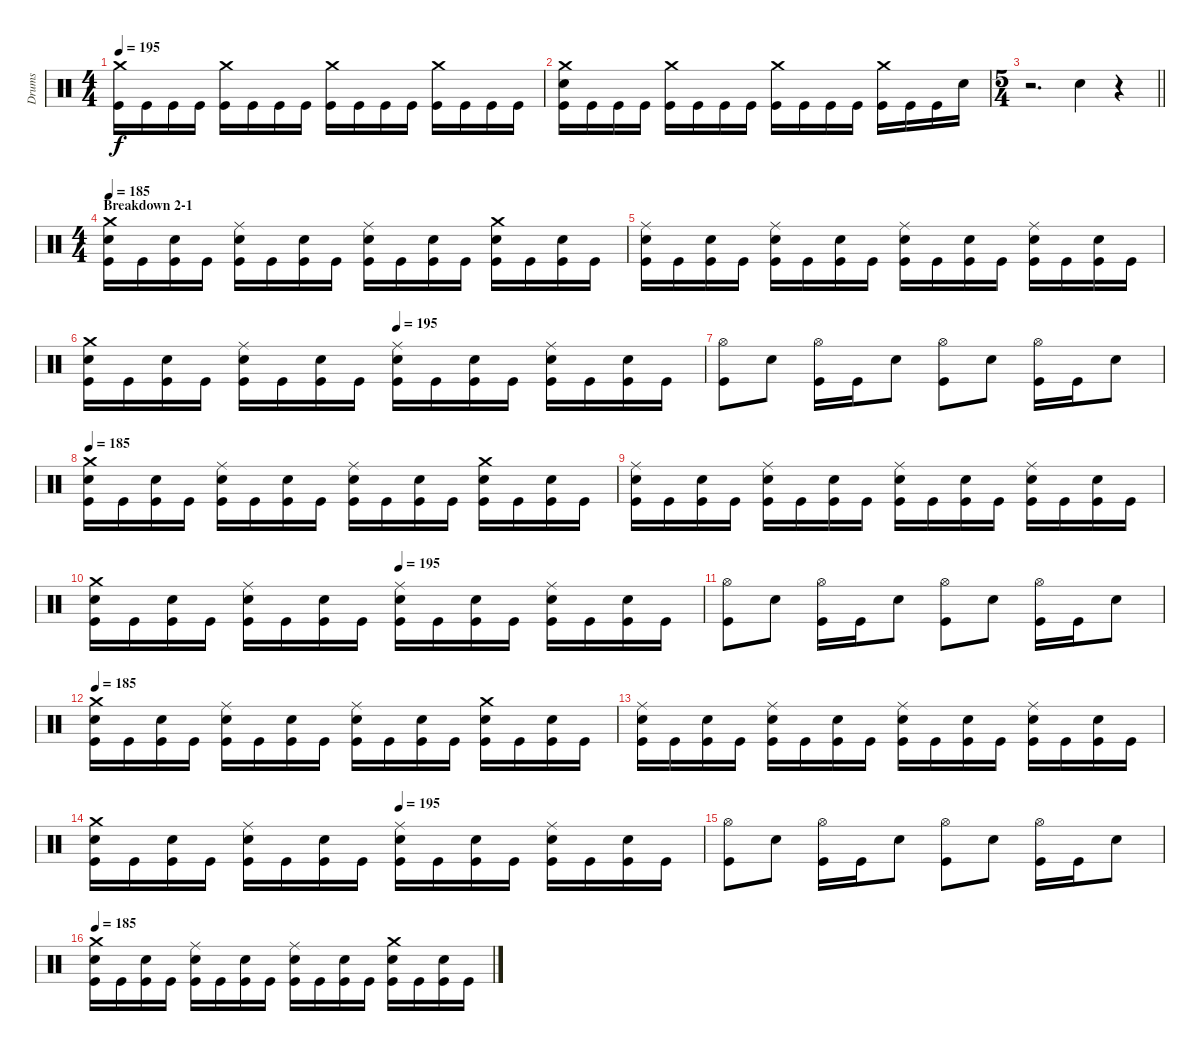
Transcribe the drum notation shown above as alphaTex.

\track ("Drums" "Drums") {instrument percussion}
\staff {score}
\articulation defaults
\ts (4 4)
\tempo 195
\clef neutral
\ks c
("Crash medium (hit)" "Kick (hit)").16{dy f} "Kick (hit)".16 "Kick (hit)".16 "Kick (hit)".16 ("Crash medium (hit)" "Kick (hit)").16 "Kick (hit)".16 "Kick (hit)".16 "Kick (hit)".16 ("Crash medium (hit)" "Kick (hit)").16 "Kick (hit)".16 "Kick (hit)".16 "Kick (hit)".16 ("Crash medium (hit)" "Kick (hit)").16 "Kick (hit)".16 "Kick (hit)".16 "Kick (hit)".16 |
("Crash medium (hit)" "Snare (hit) 2" "Kick (hit)").16 "Kick (hit)".16 "Kick (hit)".16 "Kick (hit)".16 ("Crash medium (hit)" "Kick (hit)").16 "Kick (hit)".16 "Kick (hit)".16 "Kick (hit)".16 ("Crash medium (hit)" "Kick (hit)").16 "Kick (hit)".16 "Kick (hit)".16 "Kick (hit)".16 ("Crash medium (hit)" "Kick (hit)").16 "Kick (hit)".16 "Kick (hit)".16 "Snare (hit) 2".16 |
\ts (5 4)
\barLineRight lightlight
r.2{d} "Snare (hit) 2".4 r.4 |
\ts (4 4)
\section ("" "Breakdown 2-1")
\tempo 185
("Crash medium (hit)" "Snare (hit) 2" "Kick (hit)").16 "Kick (hit)".16 ("Snare (hit) 2" "Kick (hit)").16 "Kick (hit)".16 ("Ride (middle)" "Snare (hit) 2" "Kick (hit)").16 "Kick (hit)".16 ("Snare (hit) 2" "Kick (hit)").16 "Kick (hit)".16 ("Ride (middle)" "Snare (hit) 2" "Kick (hit)").16 "Kick (hit)".16 ("Snare (hit) 2" "Kick (hit)").16 "Kick (hit)".16 ("Crash medium (hit)" "Snare (hit) 2" "Kick (hit)").16 "Kick (hit)".16 ("Snare (hit) 2" "Kick (hit)").16 "Kick (hit)".16 |
("Ride (middle)" "Snare (hit) 2" "Kick (hit)").16 "Kick (hit)".16 ("Snare (hit) 2" "Kick (hit)").16 "Kick (hit)".16 ("Ride (middle)" "Snare (hit) 2" "Kick (hit)").16 "Kick (hit)".16 ("Snare (hit) 2" "Kick (hit)").16 "Kick (hit)".16 ("Ride (middle)" "Snare (hit) 2" "Kick (hit)").16 "Kick (hit)".16 ("Snare (hit) 2" "Kick (hit)").16 "Kick (hit)".16 ("Ride (middle)" "Snare (hit) 2" "Kick (hit)").16 "Kick (hit)".16 ("Snare (hit) 2" "Kick (hit)").16 "Kick (hit)".16 |
\tempo (195 0.5)
("Crash medium (hit)" "Snare (hit) 2" "Kick (hit)").16 "Kick (hit)".16 ("Snare (hit) 2" "Kick (hit)").16 "Kick (hit)".16 ("Ride (middle)" "Snare (hit) 2" "Kick (hit)").16 "Kick (hit)".16 ("Snare (hit) 2" "Kick (hit)").16 "Kick (hit)".16 ("Ride (middle)" "Snare (hit) 2" "Kick (hit)").16 "Kick (hit)".16 ("Snare (hit) 2" "Kick (hit)").16 "Kick (hit)".16 ("Ride (middle)" "Snare (hit) 2" "Kick (hit)").16 "Kick (hit)".16 ("Snare (hit) 2" "Kick (hit)").16 "Kick (hit)".16 |
("Hi-Hat (open)" "Kick (hit)").8 "Snare (hit) 2".8 ("Hi-Hat (open)" "Kick (hit)").16 "Kick (hit)".16 "Snare (hit) 2".8 ("Hi-Hat (open)" "Kick (hit)").8 "Snare (hit) 2".8 ("Hi-Hat (open)" "Kick (hit)").16 "Kick (hit)".16 "Snare (hit) 2".8 |
\tempo 185
("Crash medium (hit)" "Snare (hit) 2" "Kick (hit)").16 "Kick (hit)".16 ("Snare (hit) 2" "Kick (hit)").16 "Kick (hit)".16 ("Ride (middle)" "Snare (hit) 2" "Kick (hit)").16 "Kick (hit)".16 ("Snare (hit) 2" "Kick (hit)").16 "Kick (hit)".16 ("Ride (middle)" "Snare (hit) 2" "Kick (hit)").16 "Kick (hit)".16 ("Snare (hit) 2" "Kick (hit)").16 "Kick (hit)".16 ("Crash medium (hit)" "Snare (hit) 2" "Kick (hit)").16 "Kick (hit)".16 ("Snare (hit) 2" "Kick (hit)").16 "Kick (hit)".16 |
("Ride (middle)" "Snare (hit) 2" "Kick (hit)").16 "Kick (hit)".16 ("Snare (hit) 2" "Kick (hit)").16 "Kick (hit)".16 ("Ride (middle)" "Snare (hit) 2" "Kick (hit)").16 "Kick (hit)".16 ("Snare (hit) 2" "Kick (hit)").16 "Kick (hit)".16 ("Ride (middle)" "Snare (hit) 2" "Kick (hit)").16 "Kick (hit)".16 ("Snare (hit) 2" "Kick (hit)").16 "Kick (hit)".16 ("Ride (middle)" "Snare (hit) 2" "Kick (hit)").16 "Kick (hit)".16 ("Snare (hit) 2" "Kick (hit)").16 "Kick (hit)".16 |
\tempo (195 0.5)
("Crash medium (hit)" "Snare (hit) 2" "Kick (hit)").16 "Kick (hit)".16 ("Snare (hit) 2" "Kick (hit)").16 "Kick (hit)".16 ("Ride (middle)" "Snare (hit) 2" "Kick (hit)").16 "Kick (hit)".16 ("Snare (hit) 2" "Kick (hit)").16 "Kick (hit)".16 ("Ride (middle)" "Snare (hit) 2" "Kick (hit)").16 "Kick (hit)".16 ("Snare (hit) 2" "Kick (hit)").16 "Kick (hit)".16 ("Ride (middle)" "Snare (hit) 2" "Kick (hit)").16 "Kick (hit)".16 ("Snare (hit) 2" "Kick (hit)").16 "Kick (hit)".16 |
("Hi-Hat (open)" "Kick (hit)").8 "Snare (hit) 2".8 ("Hi-Hat (open)" "Kick (hit)").16 "Kick (hit)".16 "Snare (hit) 2".8 ("Hi-Hat (open)" "Kick (hit)").8 "Snare (hit) 2".8 ("Hi-Hat (open)" "Kick (hit)").16 "Kick (hit)".16 "Snare (hit) 2".8 |
\tempo 185
("Crash medium (hit)" "Snare (hit) 2" "Kick (hit)").16 "Kick (hit)".16 ("Snare (hit) 2" "Kick (hit)").16 "Kick (hit)".16 ("Ride (middle)" "Snare (hit) 2" "Kick (hit)").16 "Kick (hit)".16 ("Snare (hit) 2" "Kick (hit)").16 "Kick (hit)".16 ("Ride (middle)" "Snare (hit) 2" "Kick (hit)").16 "Kick (hit)".16 ("Snare (hit) 2" "Kick (hit)").16 "Kick (hit)".16 ("Crash medium (hit)" "Snare (hit) 2" "Kick (hit)").16 "Kick (hit)".16 ("Snare (hit) 2" "Kick (hit)").16 "Kick (hit)".16 |
("Ride (middle)" "Snare (hit) 2" "Kick (hit)").16 "Kick (hit)".16 ("Snare (hit) 2" "Kick (hit)").16 "Kick (hit)".16 ("Ride (middle)" "Snare (hit) 2" "Kick (hit)").16 "Kick (hit)".16 ("Snare (hit) 2" "Kick (hit)").16 "Kick (hit)".16 ("Ride (middle)" "Snare (hit) 2" "Kick (hit)").16 "Kick (hit)".16 ("Snare (hit) 2" "Kick (hit)").16 "Kick (hit)".16 ("Ride (middle)" "Snare (hit) 2" "Kick (hit)").16 "Kick (hit)".16 ("Snare (hit) 2" "Kick (hit)").16 "Kick (hit)".16 |
\tempo (195 0.5)
("Crash medium (hit)" "Snare (hit) 2" "Kick (hit)").16 "Kick (hit)".16 ("Snare (hit) 2" "Kick (hit)").16 "Kick (hit)".16 ("Ride (middle)" "Snare (hit) 2" "Kick (hit)").16 "Kick (hit)".16 ("Snare (hit) 2" "Kick (hit)").16 "Kick (hit)".16 ("Ride (middle)" "Snare (hit) 2" "Kick (hit)").16 "Kick (hit)".16 ("Snare (hit) 2" "Kick (hit)").16 "Kick (hit)".16 ("Ride (middle)" "Snare (hit) 2" "Kick (hit)").16 "Kick (hit)".16 ("Snare (hit) 2" "Kick (hit)").16 "Kick (hit)".16 |
("Hi-Hat (open)" "Kick (hit)").8 "Snare (hit) 2".8 ("Hi-Hat (open)" "Kick (hit)").16 "Kick (hit)".16 "Snare (hit) 2".8 ("Hi-Hat (open)" "Kick (hit)").8 "Snare (hit) 2".8 ("Hi-Hat (open)" "Kick (hit)").16 "Kick (hit)".16 "Snare (hit) 2".8 |
\tempo 185
("Crash medium (hit)" "Snare (hit) 2" "Kick (hit)").16 "Kick (hit)".16 ("Snare (hit) 2" "Kick (hit)").16 "Kick (hit)".16 ("Ride (middle)" "Snare (hit) 2" "Kick (hit)").16 "Kick (hit)".16 ("Snare (hit) 2" "Kick (hit)").16 "Kick (hit)".16 ("Ride (middle)" "Snare (hit) 2" "Kick (hit)").16 "Kick (hit)".16 ("Snare (hit) 2" "Kick (hit)").16 "Kick (hit)".16 ("Crash medium (hit)" "Snare (hit) 2" "Kick (hit)").16 "Kick (hit)".16 ("Snare (hit) 2" "Kick (hit)").16 "Kick (hit)".16
